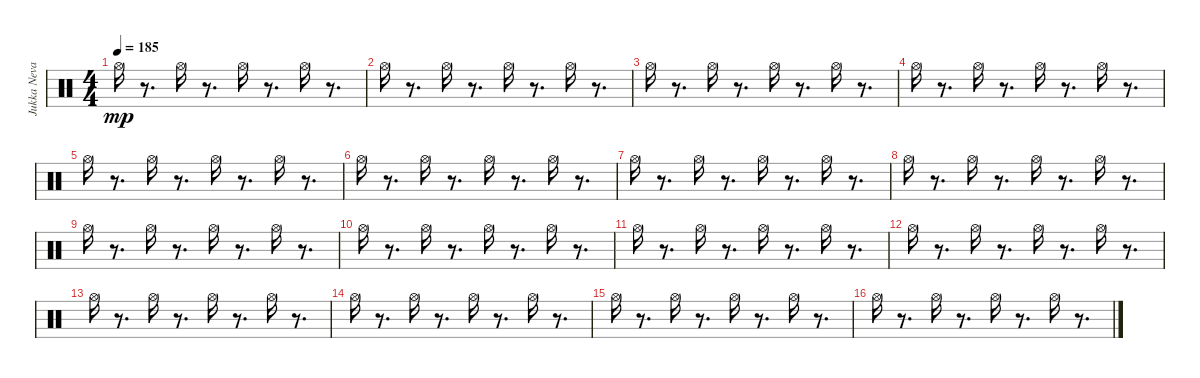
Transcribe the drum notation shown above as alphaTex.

\track ("Jukka Nevalinen" "Jukka Neva") {instrument percussion}
\staff {score}
\articulation defaults
\ts (4 4)
\tempo 185
\clef neutral
\ks c "Hi-Hat (open)".16{dy mp}
r.8{d} "Hi-Hat (open)".16 r.8{d} "Hi-Hat (open)".16 r.8{d} "Hi-Hat (open)".16 r.8{d} |
"Hi-Hat (open)".16 r.8{d} "Hi-Hat (open)".16 r.8{d} "Hi-Hat (open)".16 r.8{d} "Hi-Hat (open)".16 r.8{d} |
"Hi-Hat (open)".16 r.8{d} "Hi-Hat (open)".16 r.8{d} "Hi-Hat (open)".16 r.8{d} "Hi-Hat (open)".16 r.8{d} |
"Hi-Hat (open)".16 r.8{d} "Hi-Hat (open)".16 r.8{d} "Hi-Hat (open)".16 r.8{d} "Hi-Hat (open)".16 r.8{d} |
"Hi-Hat (open)".16 r.8{d} "Hi-Hat (open)".16 r.8{d} "Hi-Hat (open)".16 r.8{d} "Hi-Hat (open)".16 r.8{d} |
"Hi-Hat (open)".16 r.8{d} "Hi-Hat (open)".16 r.8{d} "Hi-Hat (open)".16 r.8{d} "Hi-Hat (open)".16 r.8{d} |
"Hi-Hat (open)".16 r.8{d} "Hi-Hat (open)".16 r.8{d} "Hi-Hat (open)".16 r.8{d} "Hi-Hat (open)".16 r.8{d} |
"Hi-Hat (open)".16 r.8{d} "Hi-Hat (open)".16 r.8{d} "Hi-Hat (open)".16 r.8{d} "Hi-Hat (open)".16 r.8{d} |
"Hi-Hat (open)".16 r.8{d} "Hi-Hat (open)".16 r.8{d} "Hi-Hat (open)".16 r.8{d} "Hi-Hat (open)".16 r.8{d} |
"Hi-Hat (open)".16 r.8{d} "Hi-Hat (open)".16 r.8{d} "Hi-Hat (open)".16 r.8{d} "Hi-Hat (open)".16 r.8{d} |
"Hi-Hat (open)".16 r.8{d} "Hi-Hat (open)".16 r.8{d} "Hi-Hat (open)".16 r.8{d} "Hi-Hat (open)".16 r.8{d} |
"Hi-Hat (open)".16 r.8{d} "Hi-Hat (open)".16 r.8{d} "Hi-Hat (open)".16 r.8{d} "Hi-Hat (open)".16 r.8{d} |
"Hi-Hat (open)".16 r.8{d} "Hi-Hat (open)".16 r.8{d} "Hi-Hat (open)".16 r.8{d} "Hi-Hat (open)".16 r.8{d} |
"Hi-Hat (open)".16 r.8{d} "Hi-Hat (open)".16 r.8{d} "Hi-Hat (open)".16 r.8{d} "Hi-Hat (open)".16 r.8{d} |
"Hi-Hat (open)".16 r.8{d} "Hi-Hat (open)".16 r.8{d} "Hi-Hat (open)".16 r.8{d} "Hi-Hat (open)".16 r.8{d} |
"Hi-Hat (open)".16 r.8{d} "Hi-Hat (open)".16 r.8{d} "Hi-Hat (open)".16 r.8{d} "Hi-Hat (open)".16 r.8{d}
